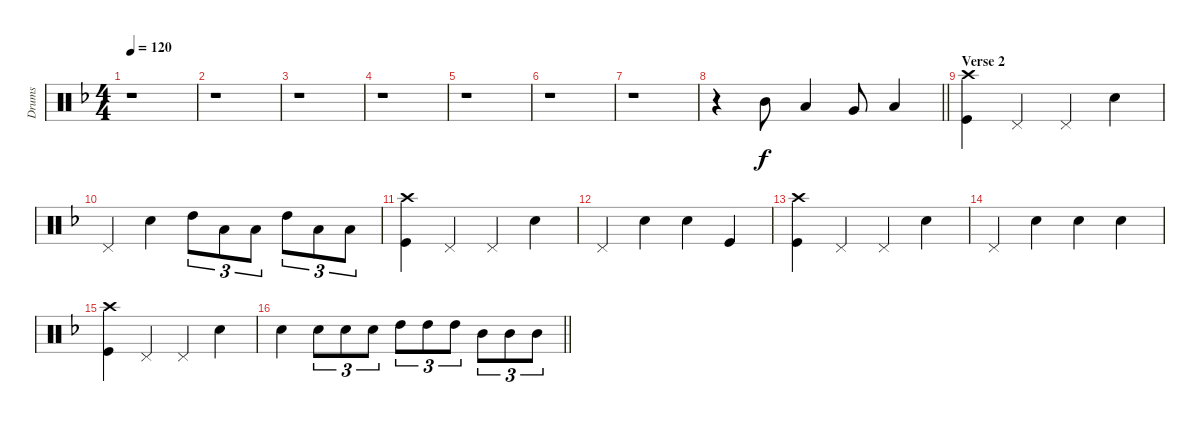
\track ("Drums" "Drums") {instrument percussion}
\staff {score}
\articulation defaults
\ts (4 4)
\tempo 120
\clef neutral
\ks f
r.1{dy f} |
r.1 |
r.1 |
r.1 |
r.1 |
r.1 |
r.1 |
\barLineRight lightlight
r.4 "Mid Tom (hit)".8 "Low Tom (hit)".4 "Very Low Tom (hit)".8 "Low Floor Tom (hit)".4 |
\section ("" "Verse 2")
("Crash high (hit)" "Kick (hit)").4 "Pedal Hi-Hat (hit)".4 "Pedal Hi-Hat (hit)".4 "Snare (hit) 2".4 |
"Pedal Hi-Hat (hit)".4 "Snare (hit) 2".4 "High Tom (hit)".8{tu (3 2)} "Low Floor Tom (hit)".8{tu (3 2)} "Low Floor Tom (hit)".8{tu (3 2)} "High Tom (hit)".8{tu (3 2)} "Low Floor Tom (hit)".8{tu (3 2)} "Low Floor Tom (hit)".8{tu (3 2)} |
("Crash high (hit)" "Kick (hit)").4 "Pedal Hi-Hat (hit)".4 "Pedal Hi-Hat (hit)".4 "Snare (hit) 2".4 |
"Pedal Hi-Hat (hit)".4 "Snare (hit) 2".4 "Snare (hit) 2".4 "Kick (hit)".4 |
("Crash high (hit)" "Kick (hit)").4 "Pedal Hi-Hat (hit)".4 "Pedal Hi-Hat (hit)".4 "Snare (hit) 2".4 |
"Pedal Hi-Hat (hit)".4 "Snare (hit) 2".4 "Snare (hit) 2".4 "Snare (hit) 2".4 |
("Crash high (hit)" "Kick (hit)").4 "Pedal Hi-Hat (hit)".4 "Pedal Hi-Hat (hit)".4 "Snare (hit) 2".4 |
\barLineRight lightlight "Snare (hit) 2".4 "Snare (hit) 2".8{tu (3 2)} "Snare (hit) 2".8{tu (3 2)} "Snare (hit) 2".8{tu (3 2)} "High Tom (hit)".8{tu (3 2)} "High Tom (hit)".8{tu (3 2)} "High Tom (hit)".8{tu (3 2)} "Mid Tom (hit)".8{tu (3 2)} "Mid Tom (hit)".8{tu (3 2)} "Mid Tom (hit)".8{tu (3 2)}
